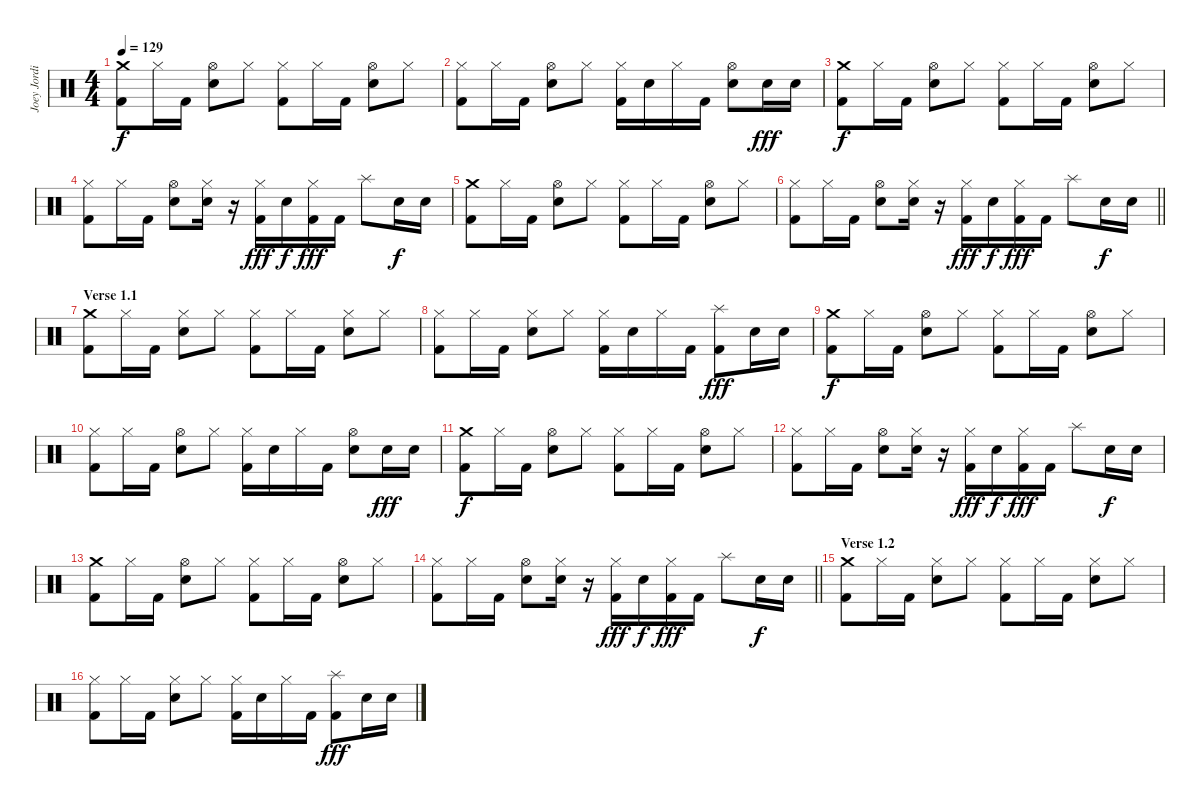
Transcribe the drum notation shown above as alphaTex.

\track ("Joey Jordison" "Joey Jordi") {instrument percussion}
\staff {score}
\articulation defaults
\ts (4 4)
\tempo 129
\clef neutral
\ks c
("Crash medium (hit)" "Kick (hit) 2").8{dy f} "Hi-Hat (closed)".16 "Kick (hit) 2".16 ("Hi-Hat (open)" "Electric Snare (hit)").8 "Hi-Hat (closed)".8 ("Hi-Hat (closed)" "Kick (hit) 2").8 "Hi-Hat (closed)".16 "Kick (hit) 2".16 ("Hi-Hat (open)" "Electric Snare (hit)").8 "Hi-Hat (closed)".8 |
("Hi-Hat (closed)" "Kick (hit) 2").8 "Hi-Hat (closed)".16 "Kick (hit) 2".16 ("Hi-Hat (open)" "Electric Snare (hit)").8 "Hi-Hat (closed)".8 ("Hi-Hat (closed)" "Kick (hit) 2").16 "Electric Snare (hit)".16 "Hi-Hat (closed)".16 "Kick (hit) 2".16 ("Hi-Hat (open)" "Electric Snare (hit)").8 "Electric Snare (hit)".16{dy fff} "Electric Snare (hit)".16 |
("Crash medium (hit)" "Kick (hit) 2").8{dy f} "Hi-Hat (closed)".16 "Kick (hit) 2".16 ("Hi-Hat (open)" "Electric Snare (hit)").8 "Hi-Hat (closed)".8 ("Hi-Hat (closed)" "Kick (hit) 2").8 "Hi-Hat (closed)".16 "Kick (hit) 2".16 ("Hi-Hat (open)" "Electric Snare (hit)").8 "Hi-Hat (closed)".8 |
("Hi-Hat (closed)" "Kick (hit) 2").8 "Hi-Hat (closed)".16 "Kick (hit) 2".16 ("Hi-Hat (open)" "Electric Snare (hit)").8 ("Hi-Hat (closed)" "Electric Snare (hit)").16 r.16 ("Hi-Hat (closed)" "Kick (hit) 2").16{dy fff} "Electric Snare (hit)".16{dy f} ("Hi-Hat (closed)" "Kick (hit) 2").16{dy fff} "Kick (hit) 2".16 "Splash (hit)".8 "Electric Snare (hit)".16{dy f} "Electric Snare (hit)".16 |
("Crash medium (hit)" "Kick (hit) 2").8 "Hi-Hat (closed)".16 "Kick (hit) 2".16 ("Hi-Hat (open)" "Electric Snare (hit)").8 "Hi-Hat (closed)".8 ("Hi-Hat (closed)" "Kick (hit) 2").8 "Hi-Hat (closed)".16 "Kick (hit) 2".16 ("Hi-Hat (open)" "Electric Snare (hit)").8 "Hi-Hat (closed)".8 |
\barLineRight lightlight
("Hi-Hat (closed)" "Kick (hit) 2").8 "Hi-Hat (closed)".16 "Kick (hit) 2".16 ("Hi-Hat (open)" "Electric Snare (hit)").8 ("Hi-Hat (closed)" "Electric Snare (hit)").16 r.16 ("Hi-Hat (closed)" "Kick (hit) 2").16{dy fff} "Electric Snare (hit)".16{dy f} ("Hi-Hat (closed)" "Kick (hit) 2").16{dy fff} "Kick (hit) 2".16 "Splash (hit)".8 "Electric Snare (hit)".16{dy f} "Electric Snare (hit)".16 |
\section ("" "Verse 1.1")
("Crash medium (hit)" "Kick (hit) 2").8 "Hi-Hat (closed)".16 "Kick (hit) 2".16 ("Hi-Hat (closed)" "Electric Snare (hit)").8 "Hi-Hat (closed)".8 ("Hi-Hat (closed)" "Kick (hit) 2").8 "Hi-Hat (closed)".16 "Kick (hit) 2".16 ("Hi-Hat (closed)" "Electric Snare (hit)").8 "Hi-Hat (closed)".8 |
("Hi-Hat (closed)" "Kick (hit) 2").8 "Hi-Hat (closed)".16 "Kick (hit) 2".16 ("Hi-Hat (closed)" "Electric Snare (hit)").8 "Hi-Hat (closed)".8 ("Hi-Hat (closed)" "Kick (hit) 2").16 "Electric Snare (hit)".16 "Hi-Hat (closed)".16 "Kick (hit) 2".16 ("Splash (hit)" "Kick (hit) 2").8{dy fff} "Electric Snare (hit)".16 "Electric Snare (hit)".16 |
("Crash medium (hit)" "Kick (hit) 2").8{dy f} "Hi-Hat (closed)".16 "Kick (hit) 2".16 ("Hi-Hat (open)" "Electric Snare (hit)").8 "Hi-Hat (closed)".8 ("Hi-Hat (closed)" "Kick (hit) 2").8 "Hi-Hat (closed)".16 "Kick (hit) 2".16 ("Hi-Hat (open)" "Electric Snare (hit)").8 "Hi-Hat (closed)".8 |
("Hi-Hat (closed)" "Kick (hit) 2").8 "Hi-Hat (closed)".16 "Kick (hit) 2".16 ("Hi-Hat (open)" "Electric Snare (hit)").8 "Hi-Hat (closed)".8 ("Hi-Hat (closed)" "Kick (hit) 2").16 "Electric Snare (hit)".16 "Hi-Hat (closed)".16 "Kick (hit) 2".16 ("Hi-Hat (open)" "Electric Snare (hit)").8 "Electric Snare (hit)".16{dy fff} "Electric Snare (hit)".16 |
("Crash medium (hit)" "Kick (hit) 2").8{dy f} "Hi-Hat (closed)".16 "Kick (hit) 2".16 ("Hi-Hat (open)" "Electric Snare (hit)").8 "Hi-Hat (closed)".8 ("Hi-Hat (closed)" "Kick (hit) 2").8 "Hi-Hat (closed)".16 "Kick (hit) 2".16 ("Hi-Hat (open)" "Electric Snare (hit)").8 "Hi-Hat (closed)".8 |
("Hi-Hat (closed)" "Kick (hit) 2").8 "Hi-Hat (closed)".16 "Kick (hit) 2".16 ("Hi-Hat (open)" "Electric Snare (hit)").8 ("Hi-Hat (closed)" "Electric Snare (hit)").16 r.16 ("Hi-Hat (closed)" "Kick (hit) 2").16{dy fff} "Electric Snare (hit)".16{dy f} ("Hi-Hat (closed)" "Kick (hit) 2").16{dy fff} "Kick (hit) 2".16 "Splash (hit)".8 "Electric Snare (hit)".16{dy f} "Electric Snare (hit)".16 |
("Crash medium (hit)" "Kick (hit) 2").8 "Hi-Hat (closed)".16 "Kick (hit) 2".16 ("Hi-Hat (open)" "Electric Snare (hit)").8 "Hi-Hat (closed)".8 ("Hi-Hat (closed)" "Kick (hit) 2").8 "Hi-Hat (closed)".16 "Kick (hit) 2".16 ("Hi-Hat (open)" "Electric Snare (hit)").8 "Hi-Hat (closed)".8 |
\barLineRight lightlight
("Hi-Hat (closed)" "Kick (hit) 2").8 "Hi-Hat (closed)".16 "Kick (hit) 2".16 ("Hi-Hat (open)" "Electric Snare (hit)").8 ("Hi-Hat (closed)" "Electric Snare (hit)").16 r.16 ("Hi-Hat (closed)" "Kick (hit) 2").16{dy fff} "Electric Snare (hit)".16{dy f} ("Hi-Hat (closed)" "Kick (hit) 2").16{dy fff} "Kick (hit) 2".16 "Splash (hit)".8 "Electric Snare (hit)".16{dy f} "Electric Snare (hit)".16 |
\section ("" "Verse 1.2")
("Crash medium (hit)" "Kick (hit) 2").8 "Hi-Hat (closed)".16 "Kick (hit) 2".16 ("Hi-Hat (closed)" "Electric Snare (hit)").8 "Hi-Hat (closed)".8 ("Hi-Hat (closed)" "Kick (hit) 2").8 "Hi-Hat (closed)".16 "Kick (hit) 2".16 ("Hi-Hat (closed)" "Electric Snare (hit)").8 "Hi-Hat (closed)".8 |
("Hi-Hat (closed)" "Kick (hit) 2").8 "Hi-Hat (closed)".16 "Kick (hit) 2".16 ("Hi-Hat (closed)" "Electric Snare (hit)").8 "Hi-Hat (closed)".8 ("Hi-Hat (closed)" "Kick (hit) 2").16 "Electric Snare (hit)".16 "Hi-Hat (closed)".16 "Kick (hit) 2".16 ("Splash (hit)" "Kick (hit) 2").8{dy fff} "Electric Snare (hit)".16 "Electric Snare (hit)".16
